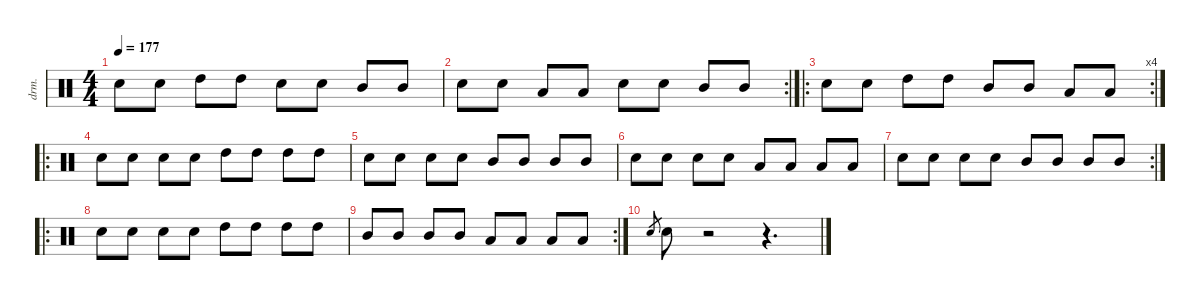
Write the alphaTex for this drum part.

\defaultSystemsLayout 4
\hideDynamics
\bracketExtendMode nobrackets
\otherSystemsTrackNameOrientation horizontal
\track ("Drumkit" "drm.") {instrument percussion}
\staff {score}
\articulation defaults
\ts (4 4)
\tempo 177
\clef neutral
\ks c "Snare (hit) 2".8{dy mf beam Down} "Snare (hit) 2".8{beam Down} "High Tom (hit)".8{beam Down} "High Tom (hit)".8{beam Down} "Snare (hit) 2".8{beam Down} "Snare (hit) 2".8{beam Down} "Mid Tom (hit)".8{beam Up} "Mid Tom (hit)".8{beam Up}
|
\rc 2 "Snare (hit) 2".8{beam Down} "Snare (hit) 2".8{beam Down} "Low Tom (hit)".8{beam Up} "Low Tom (hit)".8{beam Up} "Snare (hit) 2".8{beam Down} "Snare (hit) 2".8{beam Down} "Mid Tom (hit)".8{beam Up} "Mid Tom (hit)".8{beam Up}
|
\ro
\rc 4 "Snare (hit) 2".8{beam Down} "Snare (hit) 2".8{beam Down} "High Tom (hit)".8{beam Down} "High Tom (hit)".8{beam Down} "Mid Tom (hit)".8{beam Up} "Mid Tom (hit)".8{beam Up} "Low Tom (hit)".8{beam Up} "Low Tom (hit)".8{beam Up}
|
\ro "Snare (hit) 2".8{beam Down} "Snare (hit) 2".8{beam Down} "Snare (hit) 2".8{beam Down} "Snare (hit) 2".8{beam Down} "High Tom (hit)".8{beam Down} "High Tom (hit)".8{beam Down} "High Tom (hit)".8{beam Down} "High Tom (hit)".8{beam Down}
|
"Snare (hit) 2".8{beam Down} "Snare (hit) 2".8{beam Down} "Snare (hit) 2".8{beam Down} "Snare (hit) 2".8{beam Down} "Mid Tom (hit)".8{beam Up} "Mid Tom (hit)".8{beam Up} "Mid Tom (hit)".8{beam Up} "Mid Tom (hit)".8{beam Up} |
"Snare (hit) 2".8{beam Down} "Snare (hit) 2".8{beam Down} "Snare (hit) 2".8{beam Down} "Snare (hit) 2".8{beam Down} "Low Tom (hit)".8{beam Up} "Low Tom (hit)".8{beam Up} "Low Tom (hit)".8{beam Up} "Low Tom (hit)".8{beam Up} |
\rc 2 "Snare (hit) 2".8{beam Down} "Snare (hit) 2".8{beam Down} "Snare (hit) 2".8{beam Down} "Snare (hit) 2".8{beam Down} "Mid Tom (hit)".8{beam Up} "Mid Tom (hit)".8{beam Up} "Mid Tom (hit)".8{beam Up} "Mid Tom (hit)".8{beam Up}
|
\ro "Snare (hit) 2".8{beam Down} "Snare (hit) 2".8{beam Down} "Snare (hit) 2".8{beam Down} "Snare (hit) 2".8{beam Down} "High Tom (hit)".8{beam Down} "High Tom (hit)".8{beam Down} "High Tom (hit)".8{beam Down} "High Tom (hit)".8{beam Down}
|
\rc 2 "Mid Tom (hit)".8{beam Up} "Mid Tom (hit)".8{beam Up} "Mid Tom (hit)".8{beam Up} "Mid Tom (hit)".8{beam Up} "Low Tom (hit)".8{beam Up} "Low Tom (hit)".8{beam Up} "Low Tom (hit)".8{beam Up} "Low Tom (hit)".8{beam Up}
|
"Snare (hit) 2".8{gr beam Up} "Snare (hit) 2".8{beam Down} r.2{beam Down} r.4{d beam Down}
